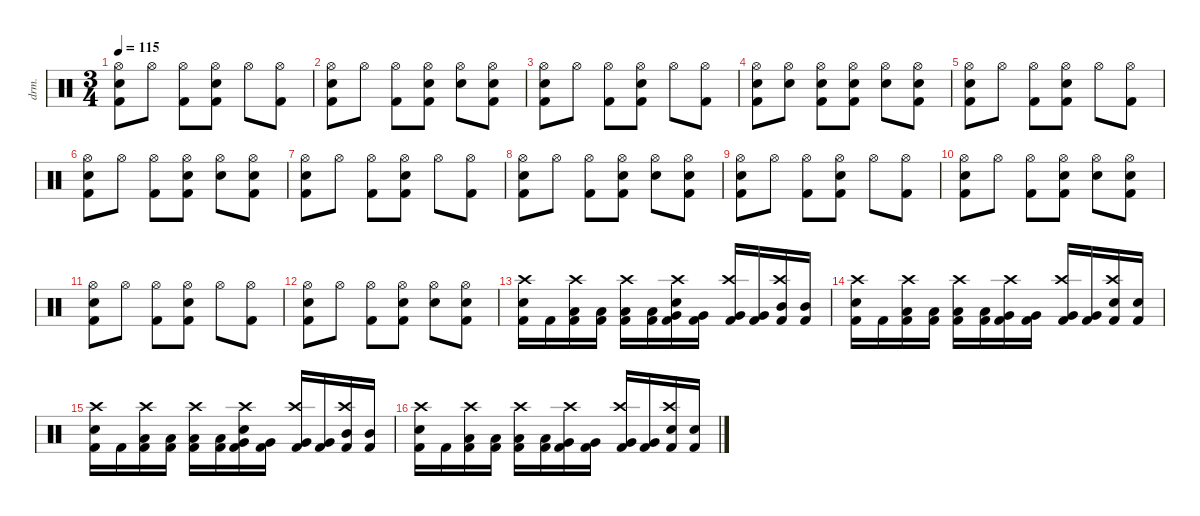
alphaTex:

\defaultSystemsLayout 4
\hideDynamics
\bracketExtendMode nobrackets
\otherSystemsTrackNameOrientation horizontal
\track ("Gene Hogland" "drm.") {instrument percussion}
\staff {score}
\articulation defaults
\ts (3 4)
\tempo 115
\clef neutral
\ks c
("Hi-Hat (open)" "Snare (hit) 2" "Kick (hit) 2").8{dy f beam Down} "Hi-Hat (open)".8{beam Down} ("Hi-Hat (open)" "Kick (hit) 2").8{beam Down} ("Hi-Hat (open)" "Snare (hit) 2" "Kick (hit) 2").8{beam Down} "Hi-Hat (open)".8{beam Down} ("Hi-Hat (open)" "Kick (hit) 2").8{beam Down} |
("Hi-Hat (open)" "Snare (hit) 2" "Kick (hit) 2").8{beam Down} "Hi-Hat (open)".8{beam Down} ("Hi-Hat (open)" "Kick (hit) 2").8{beam Down} ("Hi-Hat (open)" "Snare (hit) 2" "Kick (hit) 2").8{beam Down} ("Hi-Hat (open)" "Snare (hit) 2").8{beam Down} ("Hi-Hat (open)" "Snare (hit) 2" "Kick (hit) 2").8{beam Down} |
("Hi-Hat (open)" "Snare (hit) 2" "Kick (hit) 2").8{beam Down} "Hi-Hat (open)".8{beam Down} ("Hi-Hat (open)" "Kick (hit) 2").8{beam Down} ("Hi-Hat (open)" "Snare (hit) 2" "Kick (hit) 2").8{beam Down} "Hi-Hat (open)".8{beam Down} ("Hi-Hat (open)" "Kick (hit) 2").8{beam Down} |
("Hi-Hat (open)" "Snare (hit) 2" "Kick (hit) 2").8{beam Down} ("Hi-Hat (open)" "Snare (hit) 2").8{beam Down} ("Hi-Hat (open)" "Snare (hit) 2" "Kick (hit) 2").8{beam Down} ("Hi-Hat (open)" "Snare (hit) 2" "Kick (hit) 2").8{beam Down} ("Hi-Hat (open)" "Snare (hit) 2").8{beam Down} ("Hi-Hat (open)" "Snare (hit) 2" "Kick (hit) 2").8{beam Down} |
("Hi-Hat (open)" "Snare (hit) 2" "Kick (hit) 2").8{beam Down} "Hi-Hat (open)".8{beam Down} ("Hi-Hat (open)" "Kick (hit) 2").8{beam Down} ("Hi-Hat (open)" "Snare (hit) 2" "Kick (hit) 2").8{beam Down} "Hi-Hat (open)".8{beam Down} ("Hi-Hat (open)" "Kick (hit) 2").8{beam Down} |
("Hi-Hat (open)" "Snare (hit) 2" "Kick (hit) 2").8{beam Down} "Hi-Hat (open)".8{beam Down} ("Hi-Hat (open)" "Kick (hit) 2").8{beam Down} ("Hi-Hat (open)" "Snare (hit) 2" "Kick (hit) 2").8{beam Down} ("Hi-Hat (open)" "Snare (hit) 2").8{beam Down} ("Hi-Hat (open)" "Snare (hit) 2" "Kick (hit) 2").8{beam Down} |
("Hi-Hat (open)" "Snare (hit) 2" "Kick (hit) 2").8{beam Down} "Hi-Hat (open)".8{beam Down} ("Hi-Hat (open)" "Kick (hit) 2").8{beam Down} ("Hi-Hat (open)" "Snare (hit) 2" "Kick (hit) 2").8{beam Down} "Hi-Hat (open)".8{beam Down} ("Hi-Hat (open)" "Kick (hit) 2").8{beam Down} |
("Hi-Hat (open)" "Snare (hit) 2" "Kick (hit) 2").8{beam Down} "Hi-Hat (open)".8{beam Down} ("Hi-Hat (open)" "Kick (hit) 2").8{beam Down} ("Hi-Hat (open)" "Snare (hit) 2" "Kick (hit) 2").8{beam Down} ("Hi-Hat (open)" "Snare (hit) 2").8{beam Down} ("Hi-Hat (open)" "Snare (hit) 2" "Kick (hit) 2").8{beam Down} |
("Hi-Hat (open)" "Snare (hit) 2" "Kick (hit) 2").8{beam Down} "Hi-Hat (open)".8{beam Down} ("Hi-Hat (open)" "Kick (hit) 2").8{beam Down} ("Hi-Hat (open)" "Snare (hit) 2" "Kick (hit) 2").8{beam Down} "Hi-Hat (open)".8{beam Down} ("Hi-Hat (open)" "Kick (hit) 2").8{beam Down} |
("Hi-Hat (open)" "Snare (hit) 2" "Kick (hit) 2").8{beam Down} "Hi-Hat (open)".8{beam Down} ("Hi-Hat (open)" "Kick (hit) 2").8{beam Down} ("Hi-Hat (open)" "Snare (hit) 2" "Kick (hit) 2").8{beam Down} ("Hi-Hat (open)" "Snare (hit) 2").8{beam Down} ("Hi-Hat (open)" "Snare (hit) 2" "Kick (hit) 2").8{beam Down} |
("Hi-Hat (open)" "Snare (hit) 2" "Kick (hit) 2").8{beam Down} "Hi-Hat (open)".8{beam Down} ("Hi-Hat (open)" "Kick (hit) 2").8{beam Down} ("Hi-Hat (open)" "Snare (hit) 2" "Kick (hit) 2").8{beam Down} "Hi-Hat (open)".8{beam Down} ("Hi-Hat (open)" "Kick (hit) 2").8{beam Down} |
("Hi-Hat (open)" "Snare (hit) 2" "Kick (hit) 2").8{beam Down} "Hi-Hat (open)".8{beam Down} ("Hi-Hat (open)" "Kick (hit) 2").8{beam Down} ("Hi-Hat (open)" "Snare (hit) 2" "Kick (hit) 2").8{beam Down} ("Hi-Hat (open)" "Snare (hit) 2").8{beam Down} ("Hi-Hat (open)" "Snare (hit) 2" "Kick (hit) 2").8{beam Down} |
("Crash high (hit)" "Snare (hit) 2" "Kick (hit) 2").16{beam Down} "Kick (hit) 2".16{beam Down} ("Crash high (hit)" "Low Tom (hit)" "Kick (hit) 2").16{beam Down} ("Low Tom (hit)" "Kick (hit) 2").16{beam Down} ("Crash high (hit)" "Low Tom (hit)" "Kick (hit) 2").16{beam Down} ("Low Tom (hit)" "Kick (hit) 2").16{beam Down} ("Crash high (hit)" "Snare (hit) 2" "Very Low Tom (hit)" "Kick (hit) 2").16{beam Down} ("Very Low Tom (hit)" "Kick (hit) 2").16{beam Down} ("Crash high (hit)" "Very Low Tom (hit)" "Kick (hit) 2").16{beam Up} ("Very Low Tom (hit)" "Kick (hit) 2").16{beam Up} ("Crash high (hit)" "Mid Tom (hit)" "Kick (hit) 2").16{beam Up} ("Mid Tom (hit)" "Kick (hit) 2").16{beam Up} |
("Crash high (hit)" "Snare (hit) 2" "Kick (hit) 2").16{beam Down} "Kick (hit) 2".16{beam Down} ("Crash high (hit)" "Low Tom (hit)" "Kick (hit) 2").16{beam Down} ("Low Tom (hit)" "Kick (hit) 2").16{beam Down} ("Crash high (hit)" "Low Tom (hit)" "Kick (hit) 2").16{beam Down} ("Low Tom (hit)" "Kick (hit) 2").16{beam Down} ("Crash high (hit)" "Very Low Tom (hit)" "Kick (hit) 2").16{beam Down} ("Very Low Tom (hit)" "Kick (hit) 2").16{beam Down} ("Crash high (hit)" "Very Low Tom (hit)" "Kick (hit) 2").16{beam Up} ("Very Low Tom (hit)" "Kick (hit) 2").16{beam Up} ("Crash high (hit)" "Snare (hit) 2" "Kick (hit) 2").16{beam Up} ("Snare (hit) 2" "Kick (hit) 2").16{beam Up} |
("Crash high (hit)" "Snare (hit) 2" "Kick (hit) 2").16{beam Down} "Kick (hit) 2".16{beam Down} ("Crash high (hit)" "Low Tom (hit)" "Kick (hit) 2").16{beam Down} ("Low Tom (hit)" "Kick (hit) 2").16{beam Down} ("Crash high (hit)" "Low Tom (hit)" "Kick (hit) 2").16{beam Down} ("Low Tom (hit)" "Kick (hit) 2").16{beam Down} ("Crash high (hit)" "Snare (hit) 2" "Very Low Tom (hit)" "Kick (hit) 2").16{beam Down} ("Very Low Tom (hit)" "Kick (hit) 2").16{beam Down} ("Crash high (hit)" "Very Low Tom (hit)" "Kick (hit) 2").16{beam Up} ("Very Low Tom (hit)" "Kick (hit) 2").16{beam Up} ("Crash high (hit)" "Mid Tom (hit)" "Kick (hit) 2").16{beam Up} ("Mid Tom (hit)" "Kick (hit) 2").16{beam Up} |
("Crash high (hit)" "Snare (hit) 2" "Kick (hit) 2").16{beam Down} "Kick (hit) 2".16{beam Down} ("Crash high (hit)" "Low Tom (hit)" "Kick (hit) 2").16{beam Down} ("Low Tom (hit)" "Kick (hit) 2").16{beam Down} ("Crash high (hit)" "Low Tom (hit)" "Kick (hit) 2").16{beam Down} ("Low Tom (hit)" "Kick (hit) 2").16{beam Down} ("Crash high (hit)" "Very Low Tom (hit)" "Kick (hit) 2").16{beam Down} ("Very Low Tom (hit)" "Kick (hit) 2").16{beam Down} ("Crash high (hit)" "Very Low Tom (hit)" "Kick (hit) 2").16{beam Up} ("Very Low Tom (hit)" "Kick (hit) 2").16{beam Up} ("Crash high (hit)" "Snare (hit) 2" "Kick (hit) 2").16{beam Up} ("Snare (hit) 2" "Kick (hit) 2").16{beam Up}
